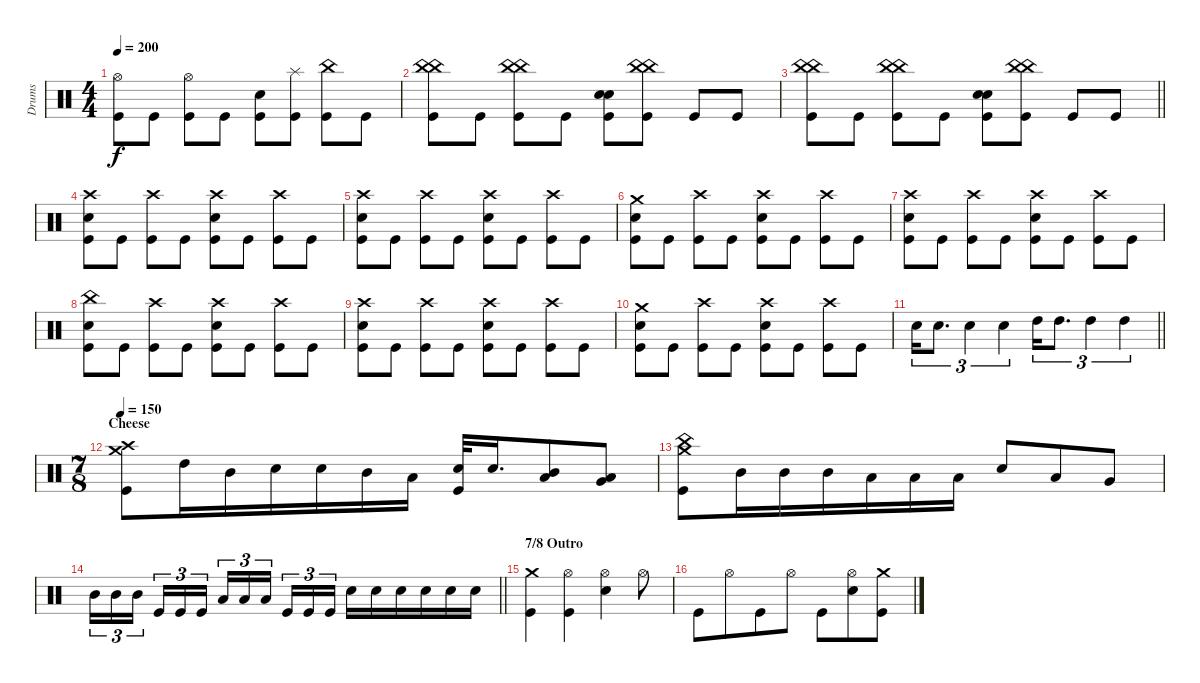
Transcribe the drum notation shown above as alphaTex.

\track ("Drums" "Drums") {instrument percussion}
\staff {score}
\articulation defaults
\ts (4 4)
\tempo 200
\clef neutral
\ks c
("Hi-Hat (open)" "Kick (hit)").8{dy f} "Kick (hit)".8 ("Hi-Hat (open)" "Kick (hit)").8 "Kick (hit)".8 ("Electric Snare (hit)" "Kick (hit)").8 ("Splash (hit)" "Kick (hit)").8 ("China (hit)" "Kick (hit)").8 "Kick (hit)".8 |
("China (hit)" "China (hit)" "Kick (hit)").8 "Kick (hit)".8 ("China (hit)" "China (hit)" "Kick (hit)").8 "Kick (hit)".8 ("Electric Snare (hit)" "Electric Snare (hit)" "Kick (hit)").8 ("China (hit)" "China (hit)" "Kick (hit)").8 "Kick (hit)".8 "Kick (hit)".8 |
\barLineRight lightlight
("China (hit)" "China (hit)" "Kick (hit)").8 "Kick (hit)".8 ("China (hit)" "China (hit)" "Kick (hit)").8 "Kick (hit)".8 ("Electric Snare (hit)" "Electric Snare (hit)" "Kick (hit)").8 ("China (hit)" "China (hit)" "Kick (hit)").8 "Kick (hit)".8 "Kick (hit)".8 |
("Crash high (hit)" "Electric Snare (hit)" "Kick (hit)").8 "Kick (hit)".8 ("Crash high (hit)" "Kick (hit)").8 "Kick (hit)".8 ("Crash high (hit)" "Electric Snare (hit)" "Kick (hit)").8 "Kick (hit)".8 ("Crash high (hit)" "Kick (hit)").8 "Kick (hit)".8 |
("Crash high (hit)" "Electric Snare (hit)" "Kick (hit)").8 "Kick (hit)".8 ("Crash high (hit)" "Kick (hit)").8 "Kick (hit)".8 ("Crash high (hit)" "Electric Snare (hit)" "Kick (hit)").8 "Kick (hit)".8 ("Crash high (hit)" "Kick (hit)").8 "Kick (hit)".8 |
("Crash medium (hit)" "Electric Snare (hit)" "Kick (hit)").8 "Kick (hit)".8 ("Crash high (hit)" "Kick (hit)").8 "Kick (hit)".8 ("Crash high (hit)" "Electric Snare (hit)" "Kick (hit)").8 "Kick (hit)".8 ("Crash high (hit)" "Kick (hit)").8 "Kick (hit)".8 |
("Crash high (hit)" "Electric Snare (hit)" "Kick (hit)").8 "Kick (hit)".8 ("Crash high (hit)" "Kick (hit)").8 "Kick (hit)".8 ("Crash high (hit)" "Electric Snare (hit)" "Kick (hit)").8 "Kick (hit)".8 ("Crash high (hit)" "Kick (hit)").8 "Kick (hit)".8 |
("China (hit)" "Electric Snare (hit)" "Kick (hit)").8 "Kick (hit)".8 ("Crash high (hit)" "Kick (hit)").8 "Kick (hit)".8 ("Crash high (hit)" "Electric Snare (hit)" "Kick (hit)").8 "Kick (hit)".8 ("Crash high (hit)" "Kick (hit)").8 "Kick (hit)".8 |
("Crash high (hit)" "Electric Snare (hit)" "Kick (hit)").8 "Kick (hit)".8 ("Crash high (hit)" "Kick (hit)").8 "Kick (hit)".8 ("Crash high (hit)" "Electric Snare (hit)" "Kick (hit)").8 "Kick (hit)".8 ("Crash high (hit)" "Kick (hit)").8 "Kick (hit)".8 |
("Crash medium (hit)" "Electric Snare (hit)" "Kick (hit)").8 "Kick (hit)".8 ("Crash high (hit)" "Kick (hit)").8 "Kick (hit)".8 ("Crash high (hit)" "Electric Snare (hit)" "Kick (hit)").8 "Kick (hit)".8 ("Crash high (hit)" "Kick (hit)").8 "Kick (hit)".8 |
\barLineRight lightlight "Electric Snare (hit)".16{tu (3 2)} "Electric Snare (hit)".8{d tu (3 2)} "Electric Snare (hit)".4{tu (3 2)} "Electric Snare (hit)".4{tu (3 2)} "High Tom (hit)".16{tu (3 2)} "High Tom (hit)".8{d tu (3 2)} "High Tom (hit)".4{tu (3 2)} "High Tom (hit)".4{tu (3 2)}
|
\ts (7 8)
\section ("" "Cheese")
\tempo 150
("Crash medium (hit)" "Crash high (hit)" "Kick (hit)").8 "High Tom (hit)".16 "Mid Tom (hit)".16 "Electric Snare (hit)".16 "Electric Snare (hit)".16 "Mid Tom (hit)".16 "Low Tom (hit)".16 ("Electric Snare (hit)" "Kick (hit)").32 "Electric Snare (hit)".16{d} ("Mid Tom (hit)" "Low Tom (hit)").8 ("Low Tom (hit)" "Very Low Tom (hit)").8 |
("Crash medium (hit)" "China (hit)" "Kick (hit)").8 "Mid Tom (hit)".16 "Mid Tom (hit)".16 "Mid Tom (hit)".16 "Low Tom (hit)".16 "Low Tom (hit)".16 "Low Tom (hit)".16 "Electric Snare (hit)".8 "Low Tom (hit)".8 "Very Low Tom (hit)".8 |
\barLineRight lightlight "Mid Tom (hit)".16{tu (3 2)} "Mid Tom (hit)".16{tu (3 2)} "Mid Tom (hit)".16{tu (3 2)} "Kick (hit)".16{tu (3 2)} "Kick (hit)".16{tu (3 2)} "Kick (hit)".16{tu (3 2)} "Low Tom (hit)".16{tu (3 2)} "Low Tom (hit)".16{tu (3 2)} "Low Tom (hit)".16{tu (3 2)} "Kick (hit)".16{tu (3 2)} "Kick (hit)".16{tu (3 2)} "Kick (hit)".16{tu (3 2)} "Electric Snare (hit)".16 "Electric Snare (hit)".16 "Electric Snare (hit)".16 "Electric Snare (hit)".16 "Electric Snare (hit)".16 "Electric Snare (hit)".16
|
\section ("" "7/8 Outro")
("Crash medium (hit)" "Kick (hit)").4 ("Hi-Hat (open)" "Kick (hit)").4 ("Hi-Hat (open)" "Electric Snare (hit)").4 "Hi-Hat (open)".8 |
"Kick (hit)".8 "Hi-Hat (open)".8 "Kick (hit)".8 "Hi-Hat (open)".8 "Kick (hit)".8 ("Hi-Hat (open)" "Electric Snare (hit)").8 ("Crash medium (hit)" "Kick (hit)").8
